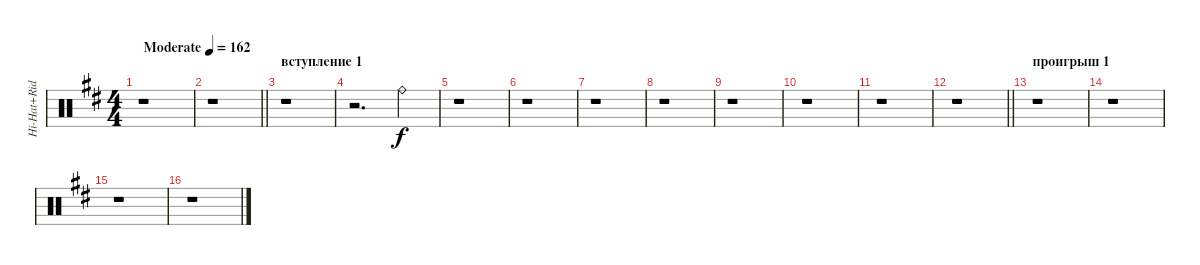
\track ("Hi-Hat+Ride" "Hi-Hat+Rid") {instrument percussion}
\staff {score}
\articulation defaults
\ts (4 4)
\tempo (162 "Moderate")
\clef neutral
\ks bminor
r.1{dy f} |
\barLineRight lightlight
r.1 |
\section ("" "вступление 1")
r.1 |
r.2{d} "Ride (bell)".4 |
r.1 |
r.1 |
r.1 |
r.1 |
r.1 |
r.1 |
r.1 |
\barLineRight lightlight
r.1 |
\section ("" "проигрыш 1")
r.1 |
r.1 |
r.1 |
r.1
